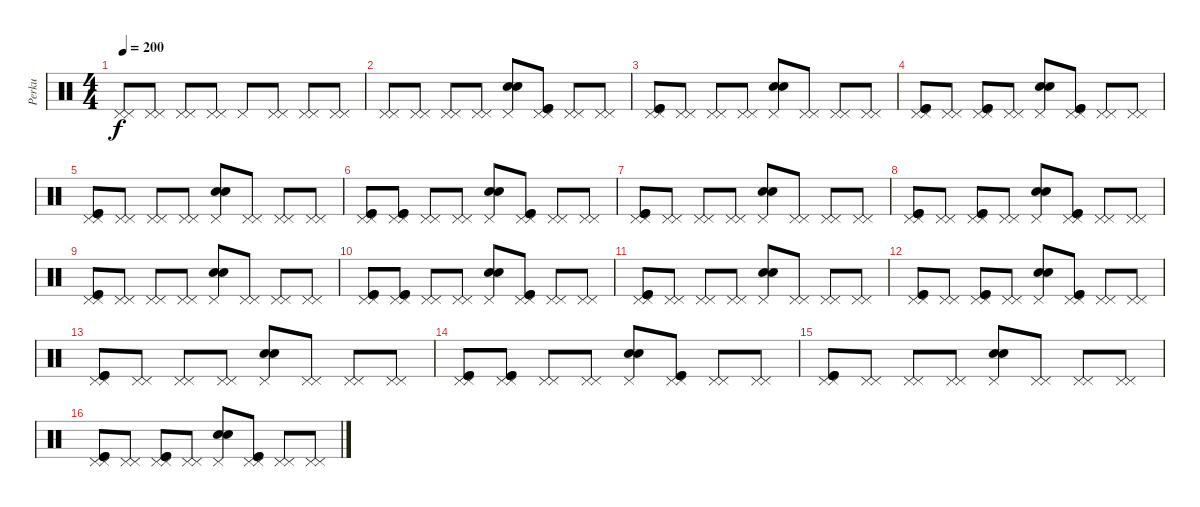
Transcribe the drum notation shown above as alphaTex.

\track ("Perku" "Perku") {instrument percussion}
\staff {score}
\articulation defaults
\ts (4 4)
\tempo 200
\clef neutral
\ks c
("Pedal Hi-Hat (hit)" "Pedal Hi-Hat (hit)").8{dy f} ("Pedal Hi-Hat (hit)" "Pedal Hi-Hat (hit)").8 ("Pedal Hi-Hat (hit)" "Pedal Hi-Hat (hit)").8 ("Pedal Hi-Hat (hit)" "Pedal Hi-Hat (hit)").8 "Pedal Hi-Hat (hit)".8 ("Pedal Hi-Hat (hit)" "Pedal Hi-Hat (hit)").8 ("Pedal Hi-Hat (hit)" "Pedal Hi-Hat (hit)").8 ("Pedal Hi-Hat (hit)" "Pedal Hi-Hat (hit)").8 |
("Pedal Hi-Hat (hit)" "Pedal Hi-Hat (hit)").8 ("Pedal Hi-Hat (hit)" "Pedal Hi-Hat (hit)").8 ("Pedal Hi-Hat (hit)" "Pedal Hi-Hat (hit)").8 ("Pedal Hi-Hat (hit)" "Pedal Hi-Hat (hit)").8 ("Pedal Hi-Hat (hit)" "Electric Snare (hit)" "Electric Snare (hit)").8 ("Pedal Hi-Hat (hit)" "Pedal Hi-Hat (hit)" "Kick (hit)" "Kick (hit)").8 ("Pedal Hi-Hat (hit)" "Pedal Hi-Hat (hit)").8 ("Pedal Hi-Hat (hit)" "Pedal Hi-Hat (hit)").8 |
("Pedal Hi-Hat (hit)" "Pedal Hi-Hat (hit)" "Kick (hit)" "Kick (hit)").8 ("Pedal Hi-Hat (hit)" "Pedal Hi-Hat (hit)").8 ("Pedal Hi-Hat (hit)" "Pedal Hi-Hat (hit)").8 ("Pedal Hi-Hat (hit)" "Pedal Hi-Hat (hit)").8 ("Pedal Hi-Hat (hit)" "Electric Snare (hit)" "Electric Snare (hit)").8 ("Pedal Hi-Hat (hit)" "Pedal Hi-Hat (hit)").8 ("Pedal Hi-Hat (hit)" "Pedal Hi-Hat (hit)").8 ("Pedal Hi-Hat (hit)" "Pedal Hi-Hat (hit)").8 |
("Pedal Hi-Hat (hit)" "Pedal Hi-Hat (hit)" "Kick (hit)" "Kick (hit)").8 ("Pedal Hi-Hat (hit)" "Pedal Hi-Hat (hit)").8 ("Pedal Hi-Hat (hit)" "Pedal Hi-Hat (hit)" "Kick (hit)" "Kick (hit)").8 ("Pedal Hi-Hat (hit)" "Pedal Hi-Hat (hit)").8 ("Pedal Hi-Hat (hit)" "Electric Snare (hit)" "Electric Snare (hit)").8 ("Pedal Hi-Hat (hit)" "Pedal Hi-Hat (hit)" "Kick (hit)" "Kick (hit)").8 ("Pedal Hi-Hat (hit)" "Pedal Hi-Hat (hit)").8 ("Pedal Hi-Hat (hit)" "Pedal Hi-Hat (hit)").8 |
("Pedal Hi-Hat (hit)" "Pedal Hi-Hat (hit)" "Kick (hit)" "Kick (hit)").8 ("Pedal Hi-Hat (hit)" "Pedal Hi-Hat (hit)").8 ("Pedal Hi-Hat (hit)" "Pedal Hi-Hat (hit)").8 ("Pedal Hi-Hat (hit)" "Pedal Hi-Hat (hit)").8 ("Pedal Hi-Hat (hit)" "Electric Snare (hit)" "Electric Snare (hit)").8 ("Pedal Hi-Hat (hit)" "Pedal Hi-Hat (hit)").8 ("Pedal Hi-Hat (hit)" "Pedal Hi-Hat (hit)").8 ("Pedal Hi-Hat (hit)" "Pedal Hi-Hat (hit)").8 |
("Pedal Hi-Hat (hit)" "Pedal Hi-Hat (hit)" "Kick (hit)" "Kick (hit)").8 ("Pedal Hi-Hat (hit)" "Pedal Hi-Hat (hit)" "Kick (hit)" "Kick (hit)").8 ("Pedal Hi-Hat (hit)" "Pedal Hi-Hat (hit)").8 ("Pedal Hi-Hat (hit)" "Pedal Hi-Hat (hit)").8 ("Pedal Hi-Hat (hit)" "Electric Snare (hit)" "Electric Snare (hit)").8 ("Pedal Hi-Hat (hit)" "Pedal Hi-Hat (hit)" "Kick (hit)" "Kick (hit)").8 ("Pedal Hi-Hat (hit)" "Pedal Hi-Hat (hit)").8 ("Pedal Hi-Hat (hit)" "Pedal Hi-Hat (hit)").8 |
("Pedal Hi-Hat (hit)" "Pedal Hi-Hat (hit)" "Kick (hit)" "Kick (hit)").8 ("Pedal Hi-Hat (hit)" "Pedal Hi-Hat (hit)").8 ("Pedal Hi-Hat (hit)" "Pedal Hi-Hat (hit)").8 ("Pedal Hi-Hat (hit)" "Pedal Hi-Hat (hit)").8 ("Pedal Hi-Hat (hit)" "Electric Snare (hit)" "Electric Snare (hit)").8 ("Pedal Hi-Hat (hit)" "Pedal Hi-Hat (hit)").8 ("Pedal Hi-Hat (hit)" "Pedal Hi-Hat (hit)").8 ("Pedal Hi-Hat (hit)" "Pedal Hi-Hat (hit)").8 |
("Pedal Hi-Hat (hit)" "Pedal Hi-Hat (hit)" "Kick (hit)" "Kick (hit)").8 ("Pedal Hi-Hat (hit)" "Pedal Hi-Hat (hit)").8 ("Pedal Hi-Hat (hit)" "Pedal Hi-Hat (hit)" "Kick (hit)" "Kick (hit)").8 ("Pedal Hi-Hat (hit)" "Pedal Hi-Hat (hit)").8 ("Pedal Hi-Hat (hit)" "Electric Snare (hit)" "Electric Snare (hit)").8 ("Pedal Hi-Hat (hit)" "Pedal Hi-Hat (hit)" "Kick (hit)" "Kick (hit)").8 ("Pedal Hi-Hat (hit)" "Pedal Hi-Hat (hit)").8 ("Pedal Hi-Hat (hit)" "Pedal Hi-Hat (hit)").8 |
("Pedal Hi-Hat (hit)" "Pedal Hi-Hat (hit)" "Kick (hit)" "Kick (hit)").8 ("Pedal Hi-Hat (hit)" "Pedal Hi-Hat (hit)").8 ("Pedal Hi-Hat (hit)" "Pedal Hi-Hat (hit)").8 ("Pedal Hi-Hat (hit)" "Pedal Hi-Hat (hit)").8 ("Pedal Hi-Hat (hit)" "Electric Snare (hit)" "Electric Snare (hit)").8 ("Pedal Hi-Hat (hit)" "Pedal Hi-Hat (hit)").8 ("Pedal Hi-Hat (hit)" "Pedal Hi-Hat (hit)").8 ("Pedal Hi-Hat (hit)" "Pedal Hi-Hat (hit)").8 |
("Pedal Hi-Hat (hit)" "Pedal Hi-Hat (hit)" "Kick (hit)" "Kick (hit)").8 ("Pedal Hi-Hat (hit)" "Pedal Hi-Hat (hit)" "Kick (hit)" "Kick (hit)").8 ("Pedal Hi-Hat (hit)" "Pedal Hi-Hat (hit)").8 ("Pedal Hi-Hat (hit)" "Pedal Hi-Hat (hit)").8 ("Pedal Hi-Hat (hit)" "Electric Snare (hit)" "Electric Snare (hit)").8 ("Pedal Hi-Hat (hit)" "Pedal Hi-Hat (hit)" "Kick (hit)" "Kick (hit)").8 ("Pedal Hi-Hat (hit)" "Pedal Hi-Hat (hit)").8 ("Pedal Hi-Hat (hit)" "Pedal Hi-Hat (hit)").8 |
("Pedal Hi-Hat (hit)" "Pedal Hi-Hat (hit)" "Kick (hit)" "Kick (hit)").8 ("Pedal Hi-Hat (hit)" "Pedal Hi-Hat (hit)").8 ("Pedal Hi-Hat (hit)" "Pedal Hi-Hat (hit)").8 ("Pedal Hi-Hat (hit)" "Pedal Hi-Hat (hit)").8 ("Pedal Hi-Hat (hit)" "Electric Snare (hit)" "Electric Snare (hit)").8 ("Pedal Hi-Hat (hit)" "Pedal Hi-Hat (hit)").8 ("Pedal Hi-Hat (hit)" "Pedal Hi-Hat (hit)").8 ("Pedal Hi-Hat (hit)" "Pedal Hi-Hat (hit)").8 |
("Pedal Hi-Hat (hit)" "Pedal Hi-Hat (hit)" "Kick (hit)" "Kick (hit)").8 ("Pedal Hi-Hat (hit)" "Pedal Hi-Hat (hit)").8 ("Pedal Hi-Hat (hit)" "Pedal Hi-Hat (hit)" "Kick (hit)" "Kick (hit)").8 ("Pedal Hi-Hat (hit)" "Pedal Hi-Hat (hit)").8 ("Pedal Hi-Hat (hit)" "Electric Snare (hit)" "Electric Snare (hit)").8 ("Pedal Hi-Hat (hit)" "Pedal Hi-Hat (hit)" "Kick (hit)" "Kick (hit)").8 ("Pedal Hi-Hat (hit)" "Pedal Hi-Hat (hit)").8 ("Pedal Hi-Hat (hit)" "Pedal Hi-Hat (hit)").8 |
("Pedal Hi-Hat (hit)" "Pedal Hi-Hat (hit)" "Kick (hit)" "Kick (hit)").8 ("Pedal Hi-Hat (hit)" "Pedal Hi-Hat (hit)").8 ("Pedal Hi-Hat (hit)" "Pedal Hi-Hat (hit)").8 ("Pedal Hi-Hat (hit)" "Pedal Hi-Hat (hit)").8 ("Pedal Hi-Hat (hit)" "Electric Snare (hit)" "Electric Snare (hit)").8 ("Pedal Hi-Hat (hit)" "Pedal Hi-Hat (hit)").8 ("Pedal Hi-Hat (hit)" "Pedal Hi-Hat (hit)").8 ("Pedal Hi-Hat (hit)" "Pedal Hi-Hat (hit)").8 |
("Pedal Hi-Hat (hit)" "Pedal Hi-Hat (hit)" "Kick (hit)" "Kick (hit)").8 ("Pedal Hi-Hat (hit)" "Pedal Hi-Hat (hit)" "Kick (hit)" "Kick (hit)").8 ("Pedal Hi-Hat (hit)" "Pedal Hi-Hat (hit)").8 ("Pedal Hi-Hat (hit)" "Pedal Hi-Hat (hit)").8 ("Pedal Hi-Hat (hit)" "Electric Snare (hit)" "Electric Snare (hit)").8 ("Pedal Hi-Hat (hit)" "Pedal Hi-Hat (hit)" "Kick (hit)" "Kick (hit)").8 ("Pedal Hi-Hat (hit)" "Pedal Hi-Hat (hit)").8 ("Pedal Hi-Hat (hit)" "Pedal Hi-Hat (hit)").8 |
("Pedal Hi-Hat (hit)" "Pedal Hi-Hat (hit)" "Kick (hit)" "Kick (hit)").8 ("Pedal Hi-Hat (hit)" "Pedal Hi-Hat (hit)").8 ("Pedal Hi-Hat (hit)" "Pedal Hi-Hat (hit)").8 ("Pedal Hi-Hat (hit)" "Pedal Hi-Hat (hit)").8 ("Pedal Hi-Hat (hit)" "Electric Snare (hit)" "Electric Snare (hit)").8 ("Pedal Hi-Hat (hit)" "Pedal Hi-Hat (hit)").8 ("Pedal Hi-Hat (hit)" "Pedal Hi-Hat (hit)").8 ("Pedal Hi-Hat (hit)" "Pedal Hi-Hat (hit)").8 |
("Pedal Hi-Hat (hit)" "Pedal Hi-Hat (hit)" "Kick (hit)" "Kick (hit)").8 ("Pedal Hi-Hat (hit)" "Pedal Hi-Hat (hit)").8 ("Pedal Hi-Hat (hit)" "Pedal Hi-Hat (hit)" "Kick (hit)" "Kick (hit)").8 ("Pedal Hi-Hat (hit)" "Pedal Hi-Hat (hit)").8 ("Pedal Hi-Hat (hit)" "Electric Snare (hit)" "Electric Snare (hit)").8 ("Pedal Hi-Hat (hit)" "Pedal Hi-Hat (hit)" "Kick (hit)" "Kick (hit)").8 ("Pedal Hi-Hat (hit)" "Pedal Hi-Hat (hit)").8 ("Pedal Hi-Hat (hit)" "Pedal Hi-Hat (hit)").8
